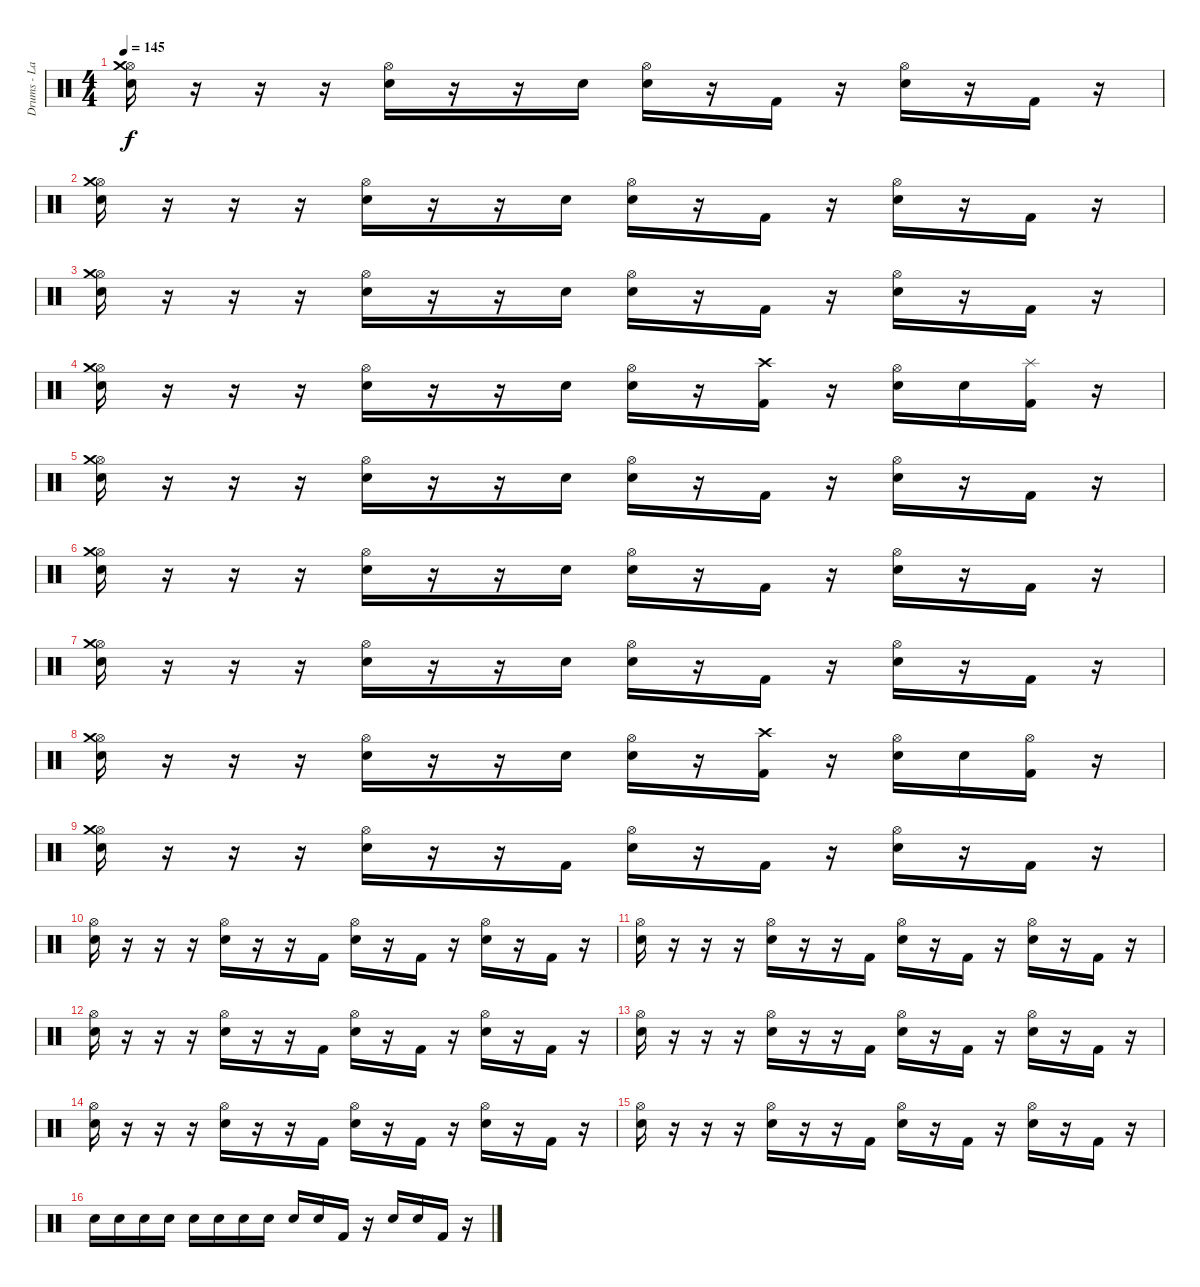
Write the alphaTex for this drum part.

\track ("Drums - Larry Gorman" "Drums - La") {instrument percussion}
\staff {score}
\articulation defaults
\ts (4 4)
\tempo 145
\clef neutral
\ks c
("Hi-Hat (open)" "Crash medium (hit)" "Electric Snare (hit)").16{dy f} r.16 r.16 r.16 ("Hi-Hat (open)" "Electric Snare (hit)").16 r.16 r.16 "Electric Snare (hit)".16 ("Hi-Hat (open)" "Electric Snare (hit)").16 r.16 "Kick (hit) 2".16 r.16 ("Hi-Hat (open)" "Electric Snare (hit)").16 r.16 "Kick (hit) 2".16 r.16 |
("Hi-Hat (open)" "Crash medium (hit)" "Electric Snare (hit)").16 r.16 r.16 r.16 ("Hi-Hat (open)" "Electric Snare (hit)").16 r.16 r.16 "Electric Snare (hit)".16 ("Hi-Hat (open)" "Electric Snare (hit)").16 r.16 "Kick (hit) 2".16 r.16 ("Hi-Hat (open)" "Electric Snare (hit)").16 r.16 "Kick (hit) 2".16 r.16 |
("Hi-Hat (open)" "Crash medium (hit)" "Electric Snare (hit)").16 r.16 r.16 r.16 ("Hi-Hat (open)" "Electric Snare (hit)").16 r.16 r.16 "Electric Snare (hit)".16 ("Hi-Hat (open)" "Electric Snare (hit)").16 r.16 "Kick (hit) 2".16 r.16 ("Hi-Hat (open)" "Electric Snare (hit)").16 r.16 "Kick (hit) 2".16 r.16 |
("Hi-Hat (open)" "Crash medium (hit)" "Electric Snare (hit)").16 r.16 r.16 r.16 ("Hi-Hat (open)" "Electric Snare (hit)").16 r.16 r.16 "Electric Snare (hit)".16 ("Hi-Hat (open)" "Electric Snare (hit)").16 r.16 ("Crash high (hit)" "Kick (hit) 2").16 r.16 ("Hi-Hat (open)" "Electric Snare (hit)").16 "Electric Snare (hit)".16 ("Splash (hit)" "Kick (hit) 2").16 r.16 |
("Hi-Hat (open)" "Crash medium (hit)" "Electric Snare (hit)").16 r.16 r.16 r.16 ("Hi-Hat (open)" "Electric Snare (hit)").16 r.16 r.16 "Electric Snare (hit)".16 ("Hi-Hat (open)" "Electric Snare (hit)").16 r.16 "Kick (hit) 2".16 r.16 ("Hi-Hat (open)" "Electric Snare (hit)").16 r.16 "Kick (hit) 2".16 r.16 |
("Hi-Hat (open)" "Crash medium (hit)" "Electric Snare (hit)").16 r.16 r.16 r.16 ("Hi-Hat (open)" "Electric Snare (hit)").16 r.16 r.16 "Electric Snare (hit)".16 ("Hi-Hat (open)" "Electric Snare (hit)").16 r.16 "Kick (hit) 2".16 r.16 ("Hi-Hat (open)" "Electric Snare (hit)").16 r.16 "Kick (hit) 2".16 r.16 |
("Hi-Hat (open)" "Crash medium (hit)" "Electric Snare (hit)").16 r.16 r.16 r.16 ("Hi-Hat (open)" "Electric Snare (hit)").16 r.16 r.16 "Electric Snare (hit)".16 ("Hi-Hat (open)" "Electric Snare (hit)").16 r.16 "Kick (hit) 2".16 r.16 ("Hi-Hat (open)" "Electric Snare (hit)").16 r.16 "Kick (hit) 2".16 r.16 |
("Hi-Hat (open)" "Crash medium (hit)" "Electric Snare (hit)").16 r.16 r.16 r.16 ("Hi-Hat (open)" "Electric Snare (hit)").16 r.16 r.16 "Electric Snare (hit)".16 ("Hi-Hat (open)" "Electric Snare (hit)").16 r.16 ("Crash high (hit)" "Kick (hit) 2").16 r.16 ("Hi-Hat (open)" "Electric Snare (hit)").16 "Electric Snare (hit)".16 ("Hi-Hat (open)" "Kick (hit) 2").16 r.16 |
("Hi-Hat (open)" "Crash medium (hit)" "Electric Snare (hit)").16 r.16 r.16 r.16 ("Hi-Hat (open)" "Electric Snare (hit)").16 r.16 r.16 "Kick (hit) 2".16 ("Hi-Hat (open)" "Electric Snare (hit)").16 r.16 "Kick (hit) 2".16 r.16 ("Hi-Hat (open)" "Electric Snare (hit)").16 r.16 "Kick (hit) 2".16 r.16 |
("Hi-Hat (open)" "Electric Snare (hit)").16 r.16 r.16 r.16 ("Hi-Hat (open)" "Electric Snare (hit)").16 r.16 r.16 "Kick (hit) 2".16 ("Hi-Hat (open)" "Electric Snare (hit)").16 r.16 "Kick (hit) 2".16 r.16 ("Hi-Hat (open)" "Electric Snare (hit)").16 r.16 "Kick (hit) 2".16 r.16 |
("Hi-Hat (open)" "Electric Snare (hit)").16 r.16 r.16 r.16 ("Hi-Hat (open)" "Electric Snare (hit)").16 r.16 r.16 "Kick (hit) 2".16 ("Hi-Hat (open)" "Electric Snare (hit)").16 r.16 "Kick (hit) 2".16 r.16 ("Hi-Hat (open)" "Electric Snare (hit)").16 r.16 "Kick (hit) 2".16 r.16 |
("Hi-Hat (open)" "Electric Snare (hit)").16 r.16 r.16 r.16 ("Hi-Hat (open)" "Electric Snare (hit)").16 r.16 r.16 "Kick (hit) 2".16 ("Hi-Hat (open)" "Electric Snare (hit)").16 r.16 "Kick (hit) 2".16 r.16 ("Hi-Hat (open)" "Electric Snare (hit)").16 r.16 "Kick (hit) 2".16 r.16 |
("Hi-Hat (open)" "Electric Snare (hit)").16 r.16 r.16 r.16 ("Hi-Hat (open)" "Electric Snare (hit)").16 r.16 r.16 "Kick (hit) 2".16 ("Hi-Hat (open)" "Electric Snare (hit)").16 r.16 "Kick (hit) 2".16 r.16 ("Hi-Hat (open)" "Electric Snare (hit)").16 r.16 "Kick (hit) 2".16 r.16 |
("Hi-Hat (open)" "Electric Snare (hit)").16 r.16 r.16 r.16 ("Hi-Hat (open)" "Electric Snare (hit)").16 r.16 r.16 "Kick (hit) 2".16 ("Hi-Hat (open)" "Electric Snare (hit)").16 r.16 "Kick (hit) 2".16 r.16 ("Hi-Hat (open)" "Electric Snare (hit)").16 r.16 "Kick (hit) 2".16 r.16 |
("Hi-Hat (open)" "Electric Snare (hit)").16 r.16 r.16 r.16 ("Hi-Hat (open)" "Electric Snare (hit)").16 r.16 r.16 "Kick (hit) 2".16 ("Hi-Hat (open)" "Electric Snare (hit)").16 r.16 "Kick (hit) 2".16 r.16 ("Hi-Hat (open)" "Electric Snare (hit)").16 r.16 "Kick (hit) 2".16 r.16 |
"Electric Snare (hit)".16 "Electric Snare (hit)".16 "Electric Snare (hit)".16 "Electric Snare (hit)".16 "Electric Snare (hit)".16 "Electric Snare (hit)".16 "Electric Snare (hit)".16 "Electric Snare (hit)".16 "Electric Snare (hit)".16 "Electric Snare (hit)".16 "Kick (hit) 2".16 r.16 "Electric Snare (hit)".16 "Electric Snare (hit)".16 "Kick (hit) 2".16 r.16
